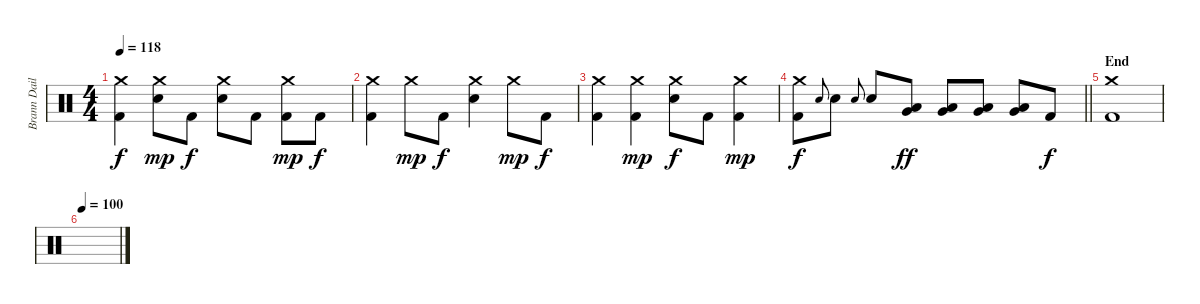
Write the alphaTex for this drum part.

\track ("Brann Dailor - Drums" "Brann Dail") {instrument percussion}
\staff {score}
\articulation defaults
\ts (4 4)
\tempo 118
\clef neutral
\ks c
("Crash medium (hit)" "Kick (hit) 2").4{dy f} ("Crash medium (hit)" "Electric Snare (hit)").8{dy mp} "Kick (hit) 2".8{dy f} ("Crash medium (hit)" "Electric Snare (hit)").8 "Kick (hit) 2".8 ("Crash medium (hit)" "Kick (hit) 2").8{dy mp} "Kick (hit) 2".8{dy f} |
("Crash medium (hit)" "Kick (hit) 2").4 "Crash medium (hit)".8{dy mp} "Kick (hit) 2".8{dy f} ("Crash medium (hit)" "Electric Snare (hit)").4 "Crash medium (hit)".8{dy mp} "Kick (hit) 2".8{dy f} |
("Crash medium (hit)" "Kick (hit) 2").4 ("Crash medium (hit)" "Kick (hit) 2").4{dy mp} ("Crash medium (hit)" "Electric Snare (hit)").8{dy f} "Kick (hit) 2".8 ("Crash medium (hit)" "Kick (hit) 2").4{dy mp} |
\barLineRight lightlight
("Crash medium (hit)" "Kick (hit) 2").8{dy f} "Electric Snare (hit)".8{gr onbeat} "Electric Snare (hit)".8 "Electric Snare (hit)".8{gr onbeat} "Electric Snare (hit)".8 ("Low Tom (hit)" "Very Low Tom (hit)").8{bd 120 dy ff} ("Low Tom (hit)" "Very Low Tom (hit)").8 ("Low Tom (hit)" "Very Low Tom (hit)").8 ("Very Low Tom (hit)" "Low Floor Tom (hit)").8 "Kick (hit) 2".8{dy f} |
\section ("" "End")
("Crash medium (hit)" "Kick (hit) 2").1 |
\tempo 100
